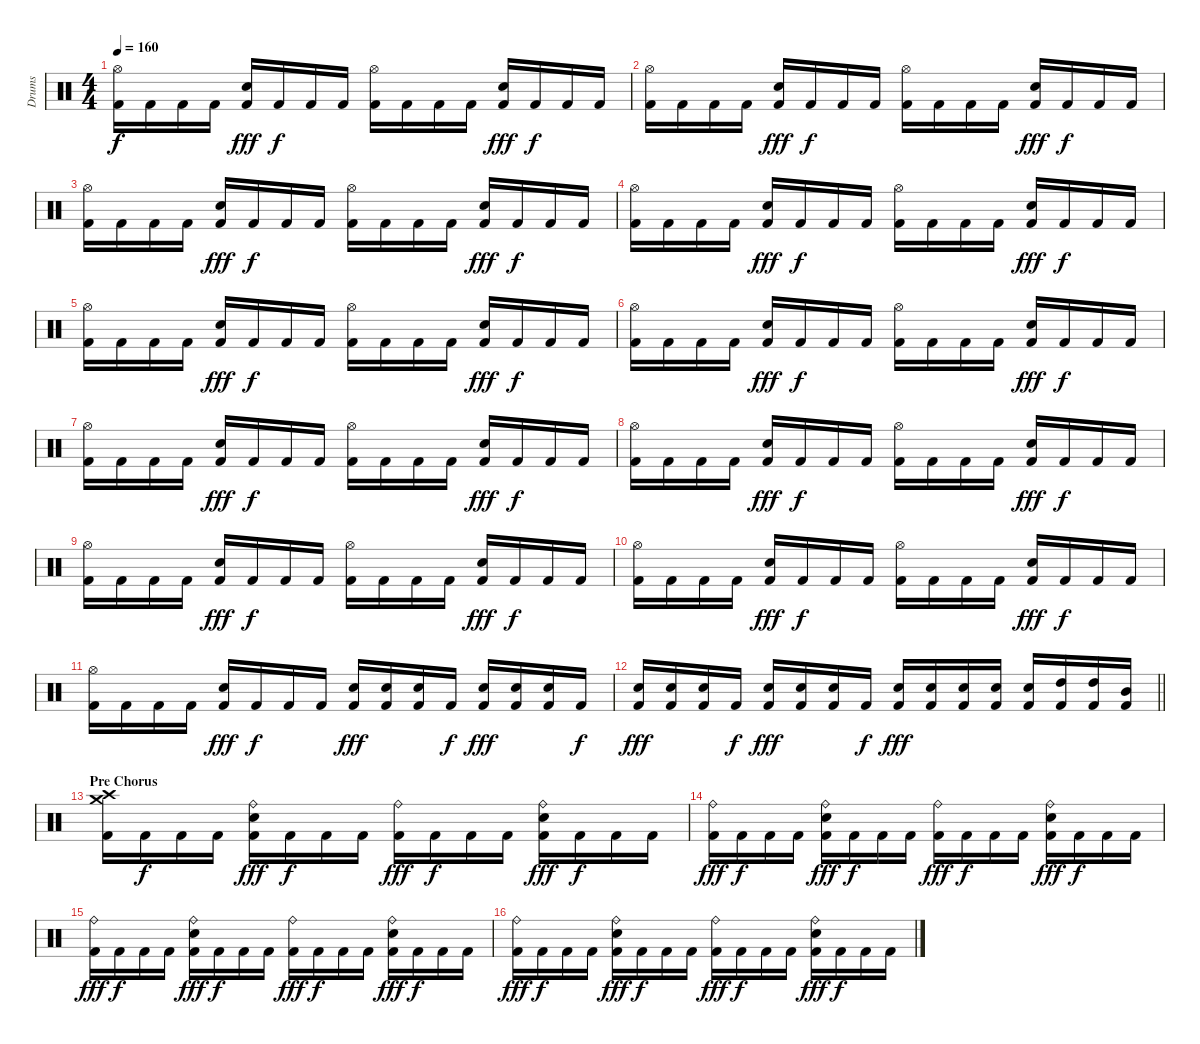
\track ("Drums" "Drums") {instrument percussion}
\staff {score}
\articulation defaults
\ts (4 4)
\tempo 160
\clef neutral
\ks c
("Hi-Hat (open)" "Kick (hit) 2").16{dy f} "Kick (hit) 2".16 "Kick (hit) 2".16 "Kick (hit) 2".16 ("Electric Snare (hit)" "Kick (hit) 2").16{dy fff} "Kick (hit) 2".16{dy f} "Kick (hit) 2".16 "Kick (hit) 2".16 ("Hi-Hat (open)" "Kick (hit) 2").16 "Kick (hit) 2".16 "Kick (hit) 2".16 "Kick (hit) 2".16 ("Electric Snare (hit)" "Kick (hit) 2").16{dy fff} "Kick (hit) 2".16{dy f} "Kick (hit) 2".16 "Kick (hit) 2".16 |
("Hi-Hat (open)" "Kick (hit) 2").16 "Kick (hit) 2".16 "Kick (hit) 2".16 "Kick (hit) 2".16 ("Electric Snare (hit)" "Kick (hit) 2").16{dy fff} "Kick (hit) 2".16{dy f} "Kick (hit) 2".16 "Kick (hit) 2".16 ("Hi-Hat (open)" "Kick (hit) 2").16 "Kick (hit) 2".16 "Kick (hit) 2".16 "Kick (hit) 2".16 ("Electric Snare (hit)" "Kick (hit) 2").16{dy fff} "Kick (hit) 2".16{dy f} "Kick (hit) 2".16 "Kick (hit) 2".16 |
("Hi-Hat (open)" "Kick (hit) 2").16 "Kick (hit) 2".16 "Kick (hit) 2".16 "Kick (hit) 2".16 ("Electric Snare (hit)" "Kick (hit) 2").16{dy fff} "Kick (hit) 2".16{dy f} "Kick (hit) 2".16 "Kick (hit) 2".16 ("Hi-Hat (open)" "Kick (hit) 2").16 "Kick (hit) 2".16 "Kick (hit) 2".16 "Kick (hit) 2".16 ("Electric Snare (hit)" "Kick (hit) 2").16{dy fff} "Kick (hit) 2".16{dy f} "Kick (hit) 2".16 "Kick (hit) 2".16 |
("Hi-Hat (open)" "Kick (hit) 2").16 "Kick (hit) 2".16 "Kick (hit) 2".16 "Kick (hit) 2".16 ("Electric Snare (hit)" "Kick (hit) 2").16{dy fff} "Kick (hit) 2".16{dy f} "Kick (hit) 2".16 "Kick (hit) 2".16 ("Hi-Hat (open)" "Kick (hit) 2").16 "Kick (hit) 2".16 "Kick (hit) 2".16 "Kick (hit) 2".16 ("Electric Snare (hit)" "Kick (hit) 2").16{dy fff} "Kick (hit) 2".16{dy f} "Kick (hit) 2".16 "Kick (hit) 2".16 |
("Hi-Hat (open)" "Kick (hit) 2").16 "Kick (hit) 2".16 "Kick (hit) 2".16 "Kick (hit) 2".16 ("Electric Snare (hit)" "Kick (hit) 2").16{dy fff} "Kick (hit) 2".16{dy f} "Kick (hit) 2".16 "Kick (hit) 2".16 ("Hi-Hat (open)" "Kick (hit) 2").16 "Kick (hit) 2".16 "Kick (hit) 2".16 "Kick (hit) 2".16 ("Electric Snare (hit)" "Kick (hit) 2").16{dy fff} "Kick (hit) 2".16{dy f} "Kick (hit) 2".16 "Kick (hit) 2".16 |
("Hi-Hat (open)" "Kick (hit) 2").16 "Kick (hit) 2".16 "Kick (hit) 2".16 "Kick (hit) 2".16 ("Electric Snare (hit)" "Kick (hit) 2").16{dy fff} "Kick (hit) 2".16{dy f} "Kick (hit) 2".16 "Kick (hit) 2".16 ("Hi-Hat (open)" "Kick (hit) 2").16 "Kick (hit) 2".16 "Kick (hit) 2".16 "Kick (hit) 2".16 ("Electric Snare (hit)" "Kick (hit) 2").16{dy fff} "Kick (hit) 2".16{dy f} "Kick (hit) 2".16 "Kick (hit) 2".16 |
("Hi-Hat (open)" "Kick (hit) 2").16 "Kick (hit) 2".16 "Kick (hit) 2".16 "Kick (hit) 2".16 ("Electric Snare (hit)" "Kick (hit) 2").16{dy fff} "Kick (hit) 2".16{dy f} "Kick (hit) 2".16 "Kick (hit) 2".16 ("Hi-Hat (open)" "Kick (hit) 2").16 "Kick (hit) 2".16 "Kick (hit) 2".16 "Kick (hit) 2".16 ("Electric Snare (hit)" "Kick (hit) 2").16{dy fff} "Kick (hit) 2".16{dy f} "Kick (hit) 2".16 "Kick (hit) 2".16 |
("Hi-Hat (open)" "Kick (hit) 2").16 "Kick (hit) 2".16 "Kick (hit) 2".16 "Kick (hit) 2".16 ("Electric Snare (hit)" "Kick (hit) 2").16{dy fff} "Kick (hit) 2".16{dy f} "Kick (hit) 2".16 "Kick (hit) 2".16 ("Hi-Hat (open)" "Kick (hit) 2").16 "Kick (hit) 2".16 "Kick (hit) 2".16 "Kick (hit) 2".16 ("Electric Snare (hit)" "Kick (hit) 2").16{dy fff} "Kick (hit) 2".16{dy f} "Kick (hit) 2".16 "Kick (hit) 2".16 |
("Hi-Hat (open)" "Kick (hit) 2").16 "Kick (hit) 2".16 "Kick (hit) 2".16 "Kick (hit) 2".16 ("Electric Snare (hit)" "Kick (hit) 2").16{dy fff} "Kick (hit) 2".16{dy f} "Kick (hit) 2".16 "Kick (hit) 2".16 ("Hi-Hat (open)" "Kick (hit) 2").16 "Kick (hit) 2".16 "Kick (hit) 2".16 "Kick (hit) 2".16 ("Electric Snare (hit)" "Kick (hit) 2").16{dy fff} "Kick (hit) 2".16{dy f} "Kick (hit) 2".16 "Kick (hit) 2".16 |
("Hi-Hat (open)" "Kick (hit) 2").16 "Kick (hit) 2".16 "Kick (hit) 2".16 "Kick (hit) 2".16 ("Electric Snare (hit)" "Kick (hit) 2").16{dy fff} "Kick (hit) 2".16{dy f} "Kick (hit) 2".16 "Kick (hit) 2".16 ("Hi-Hat (open)" "Kick (hit) 2").16 "Kick (hit) 2".16 "Kick (hit) 2".16 "Kick (hit) 2".16 ("Electric Snare (hit)" "Kick (hit) 2").16{dy fff} "Kick (hit) 2".16{dy f} "Kick (hit) 2".16 "Kick (hit) 2".16 |
("Hi-Hat (open)" "Kick (hit) 2").16 "Kick (hit) 2".16 "Kick (hit) 2".16 "Kick (hit) 2".16 ("Electric Snare (hit)" "Kick (hit) 2").16{dy fff} "Kick (hit) 2".16{dy f} "Kick (hit) 2".16 "Kick (hit) 2".16 ("Electric Snare (hit)" "Kick (hit) 2").16{dy fff} ("Electric Snare (hit)" "Kick (hit) 2").16 ("Electric Snare (hit)" "Kick (hit) 2").16 "Kick (hit) 2".16{dy f} ("Electric Snare (hit)" "Kick (hit) 2").16{dy fff} ("Electric Snare (hit)" "Kick (hit) 2").16 ("Electric Snare (hit)" "Kick (hit) 2").16 "Kick (hit) 2".16{dy f} |
\barLineRight lightlight
("Electric Snare (hit)" "Kick (hit) 2").16{dy fff} ("Electric Snare (hit)" "Kick (hit) 2").16 ("Electric Snare (hit)" "Kick (hit) 2").16 "Kick (hit) 2".16{dy f} ("Electric Snare (hit)" "Kick (hit) 2").16{dy fff} ("Electric Snare (hit)" "Kick (hit) 2").16 ("Electric Snare (hit)" "Kick (hit) 2").16 "Kick (hit) 2".16{dy f} ("Electric Snare (hit)" "Kick (hit) 2").16{dy fff} ("Electric Snare (hit)" "Kick (hit) 2").16 ("Electric Snare (hit)" "Kick (hit) 2").16 ("Electric Snare (hit)" "Kick (hit) 2").16 ("Electric Snare (hit)" "Kick (hit) 2").16 ("High Tom (hit)" "Kick (hit) 2").16 ("High Tom (hit)" "Kick (hit) 2").16 ("Mid Tom (hit)" "Kick (hit) 2").16 |
\section ("" "Pre Chorus")
("Crash high (hit)" "Crash medium (hit)" "Kick (hit) 2").16 "Kick (hit) 2".16{dy f} "Kick (hit) 2".16 "Kick (hit) 2".16 ("Ride (bell)" "Electric Snare (hit)" "Kick (hit) 2").16{dy fff} "Kick (hit) 2".16{dy f} "Kick (hit) 2".16 "Kick (hit) 2".16 ("Ride (bell)" "Kick (hit) 2").16{dy fff} "Kick (hit) 2".16{dy f} "Kick (hit) 2".16 "Kick (hit) 2".16 ("Ride (bell)" "Electric Snare (hit)" "Kick (hit) 2").16{dy fff} "Kick (hit) 2".16{dy f} "Kick (hit) 2".16 "Kick (hit) 2".16 |
("Ride (bell)" "Kick (hit) 2").16{dy fff} "Kick (hit) 2".16{dy f} "Kick (hit) 2".16 "Kick (hit) 2".16 ("Ride (bell)" "Electric Snare (hit)" "Kick (hit) 2").16{dy fff} "Kick (hit) 2".16{dy f} "Kick (hit) 2".16 "Kick (hit) 2".16 ("Ride (bell)" "Kick (hit) 2").16{dy fff} "Kick (hit) 2".16{dy f} "Kick (hit) 2".16 "Kick (hit) 2".16 ("Ride (bell)" "Electric Snare (hit)" "Kick (hit) 2").16{dy fff} "Kick (hit) 2".16{dy f} "Kick (hit) 2".16 "Kick (hit) 2".16 |
("Ride (bell)" "Kick (hit) 2").16{dy fff} "Kick (hit) 2".16{dy f} "Kick (hit) 2".16 "Kick (hit) 2".16 ("Ride (bell)" "Electric Snare (hit)" "Kick (hit) 2").16{dy fff} "Kick (hit) 2".16{dy f} "Kick (hit) 2".16 "Kick (hit) 2".16 ("Ride (bell)" "Kick (hit) 2").16{dy fff} "Kick (hit) 2".16{dy f} "Kick (hit) 2".16 "Kick (hit) 2".16 ("Ride (bell)" "Electric Snare (hit)" "Kick (hit) 2").16{dy fff} "Kick (hit) 2".16{dy f} "Kick (hit) 2".16 "Kick (hit) 2".16 |
("Ride (bell)" "Kick (hit) 2").16{dy fff} "Kick (hit) 2".16{dy f} "Kick (hit) 2".16 "Kick (hit) 2".16 ("Ride (bell)" "Electric Snare (hit)" "Kick (hit) 2").16{dy fff} "Kick (hit) 2".16{dy f} "Kick (hit) 2".16 "Kick (hit) 2".16 ("Ride (bell)" "Kick (hit) 2").16{dy fff} "Kick (hit) 2".16{dy f} "Kick (hit) 2".16 "Kick (hit) 2".16 ("Ride (bell)" "Electric Snare (hit)" "Kick (hit) 2").16{dy fff} "Kick (hit) 2".16{dy f} "Kick (hit) 2".16 "Kick (hit) 2".16
